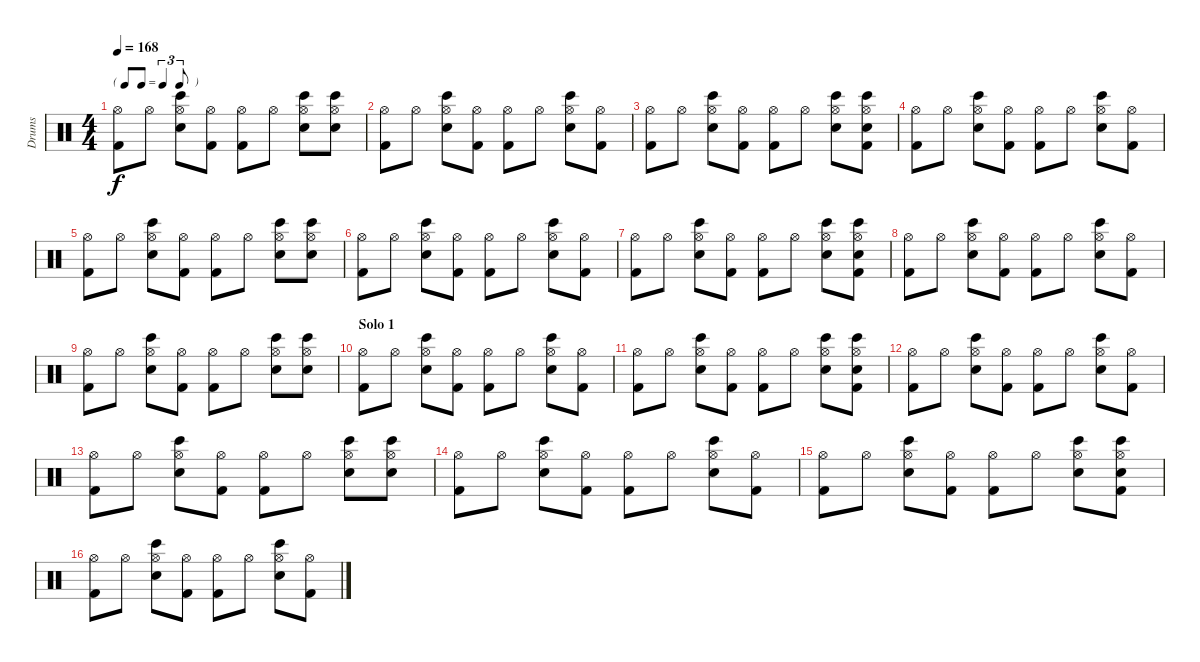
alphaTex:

\track ("Drums" "Drums") {instrument percussion}
\staff {score}
\articulation defaults
\ts (4 4)
\tf triplet8th
\tempo 168
\clef neutral
\ks c
("Hi-Hat (open)" "Kick (hit) 2").8{dy f} "Hi-Hat (open)".8 ("Hi-Hat (open)" "Bongo High (hit)" "Snare (hit) 2").8 ("Hi-Hat (open)" "Kick (hit) 2").8 ("Hi-Hat (open)" "Kick (hit) 2").8 "Hi-Hat (open)".8 ("Hi-Hat (open)" "Bongo High (hit)" "Snare (hit) 2").8 ("Hi-Hat (open)" "Bongo High (hit)" "Snare (hit) 2").8 |
("Hi-Hat (open)" "Kick (hit) 2").8 "Hi-Hat (open)".8 ("Hi-Hat (open)" "Bongo High (hit)" "Snare (hit) 2").8 ("Hi-Hat (open)" "Kick (hit) 2").8 ("Hi-Hat (open)" "Kick (hit) 2").8 "Hi-Hat (open)".8 ("Hi-Hat (open)" "Bongo High (hit)" "Snare (hit) 2").8 ("Hi-Hat (open)" "Kick (hit) 2").8 |
("Hi-Hat (open)" "Kick (hit) 2").8 "Hi-Hat (open)".8 ("Hi-Hat (open)" "Bongo High (hit)" "Snare (hit) 2").8 ("Hi-Hat (open)" "Kick (hit) 2").8 ("Hi-Hat (open)" "Kick (hit) 2").8 "Hi-Hat (open)".8 ("Hi-Hat (open)" "Bongo High (hit)" "Snare (hit) 2").8 ("Hi-Hat (open)" "Bongo High (hit)" "Snare (hit) 2" "Kick (hit) 2").8 |
("Hi-Hat (open)" "Kick (hit) 2").8 "Hi-Hat (open)".8 ("Hi-Hat (open)" "Bongo High (hit)" "Snare (hit) 2").8 ("Hi-Hat (open)" "Kick (hit) 2").8 ("Hi-Hat (open)" "Kick (hit) 2").8 "Hi-Hat (open)".8 ("Hi-Hat (open)" "Bongo High (hit)" "Snare (hit) 2").8 ("Hi-Hat (open)" "Kick (hit) 2").8 |
("Hi-Hat (open)" "Kick (hit) 2").8 "Hi-Hat (open)".8 ("Hi-Hat (open)" "Bongo High (hit)" "Snare (hit) 2").8 ("Hi-Hat (open)" "Kick (hit) 2").8 ("Hi-Hat (open)" "Kick (hit) 2").8 "Hi-Hat (open)".8 ("Hi-Hat (open)" "Bongo High (hit)" "Snare (hit) 2").8 ("Hi-Hat (open)" "Bongo High (hit)" "Snare (hit) 2").8 |
("Hi-Hat (open)" "Kick (hit) 2").8 "Hi-Hat (open)".8 ("Hi-Hat (open)" "Bongo High (hit)" "Snare (hit) 2").8 ("Hi-Hat (open)" "Kick (hit) 2").8 ("Hi-Hat (open)" "Kick (hit) 2").8 "Hi-Hat (open)".8 ("Hi-Hat (open)" "Bongo High (hit)" "Snare (hit) 2").8 ("Hi-Hat (open)" "Kick (hit) 2").8 |
("Hi-Hat (open)" "Kick (hit) 2").8 "Hi-Hat (open)".8 ("Hi-Hat (open)" "Bongo High (hit)" "Snare (hit) 2").8 ("Hi-Hat (open)" "Kick (hit) 2").8 ("Hi-Hat (open)" "Kick (hit) 2").8 "Hi-Hat (open)".8 ("Hi-Hat (open)" "Bongo High (hit)" "Snare (hit) 2").8 ("Hi-Hat (open)" "Bongo High (hit)" "Snare (hit) 2" "Kick (hit) 2").8 |
("Hi-Hat (open)" "Kick (hit) 2").8 "Hi-Hat (open)".8 ("Hi-Hat (open)" "Bongo High (hit)" "Snare (hit) 2").8 ("Hi-Hat (open)" "Kick (hit) 2").8 ("Hi-Hat (open)" "Kick (hit) 2").8 "Hi-Hat (open)".8 ("Hi-Hat (open)" "Bongo High (hit)" "Snare (hit) 2").8 ("Hi-Hat (open)" "Kick (hit) 2").8 |
("Hi-Hat (open)" "Kick (hit) 2").8 "Hi-Hat (open)".8 ("Hi-Hat (open)" "Bongo High (hit)" "Snare (hit) 2").8 ("Hi-Hat (open)" "Kick (hit) 2").8 ("Hi-Hat (open)" "Kick (hit) 2").8 "Hi-Hat (open)".8 ("Hi-Hat (open)" "Bongo High (hit)" "Snare (hit) 2").8 ("Hi-Hat (open)" "Bongo High (hit)" "Snare (hit) 2").8 |
\section ("" "Solo 1")
("Hi-Hat (open)" "Kick (hit) 2").8 "Hi-Hat (open)".8 ("Hi-Hat (open)" "Bongo High (hit)" "Snare (hit) 2").8 ("Hi-Hat (open)" "Kick (hit) 2").8 ("Hi-Hat (open)" "Kick (hit) 2").8 "Hi-Hat (open)".8 ("Hi-Hat (open)" "Bongo High (hit)" "Snare (hit) 2").8 ("Hi-Hat (open)" "Kick (hit) 2").8 |
("Hi-Hat (open)" "Kick (hit) 2").8 "Hi-Hat (open)".8 ("Hi-Hat (open)" "Bongo High (hit)" "Snare (hit) 2").8 ("Hi-Hat (open)" "Kick (hit) 2").8 ("Hi-Hat (open)" "Kick (hit) 2").8 "Hi-Hat (open)".8 ("Hi-Hat (open)" "Bongo High (hit)" "Snare (hit) 2").8 ("Hi-Hat (open)" "Bongo High (hit)" "Snare (hit) 2" "Kick (hit) 2").8 |
("Hi-Hat (open)" "Kick (hit) 2").8 "Hi-Hat (open)".8 ("Hi-Hat (open)" "Bongo High (hit)" "Snare (hit) 2").8 ("Hi-Hat (open)" "Kick (hit) 2").8 ("Hi-Hat (open)" "Kick (hit) 2").8 "Hi-Hat (open)".8 ("Hi-Hat (open)" "Bongo High (hit)" "Snare (hit) 2").8 ("Hi-Hat (open)" "Kick (hit) 2").8 |
("Hi-Hat (open)" "Kick (hit) 2").8 "Hi-Hat (open)".8 ("Hi-Hat (open)" "Bongo High (hit)" "Snare (hit) 2").8 ("Hi-Hat (open)" "Kick (hit) 2").8 ("Hi-Hat (open)" "Kick (hit) 2").8 "Hi-Hat (open)".8 ("Hi-Hat (open)" "Bongo High (hit)" "Snare (hit) 2").8 ("Hi-Hat (open)" "Bongo High (hit)" "Snare (hit) 2").8 |
("Hi-Hat (open)" "Kick (hit) 2").8 "Hi-Hat (open)".8 ("Hi-Hat (open)" "Bongo High (hit)" "Snare (hit) 2").8 ("Hi-Hat (open)" "Kick (hit) 2").8 ("Hi-Hat (open)" "Kick (hit) 2").8 "Hi-Hat (open)".8 ("Hi-Hat (open)" "Bongo High (hit)" "Snare (hit) 2").8 ("Hi-Hat (open)" "Kick (hit) 2").8 |
("Hi-Hat (open)" "Kick (hit) 2").8 "Hi-Hat (open)".8 ("Hi-Hat (open)" "Bongo High (hit)" "Snare (hit) 2").8 ("Hi-Hat (open)" "Kick (hit) 2").8 ("Hi-Hat (open)" "Kick (hit) 2").8 "Hi-Hat (open)".8 ("Hi-Hat (open)" "Bongo High (hit)" "Snare (hit) 2").8 ("Hi-Hat (open)" "Bongo High (hit)" "Snare (hit) 2" "Kick (hit) 2").8 |
("Hi-Hat (open)" "Kick (hit) 2").8 "Hi-Hat (open)".8 ("Hi-Hat (open)" "Bongo High (hit)" "Snare (hit) 2").8 ("Hi-Hat (open)" "Kick (hit) 2").8 ("Hi-Hat (open)" "Kick (hit) 2").8 "Hi-Hat (open)".8 ("Hi-Hat (open)" "Bongo High (hit)" "Snare (hit) 2").8 ("Hi-Hat (open)" "Kick (hit) 2").8
